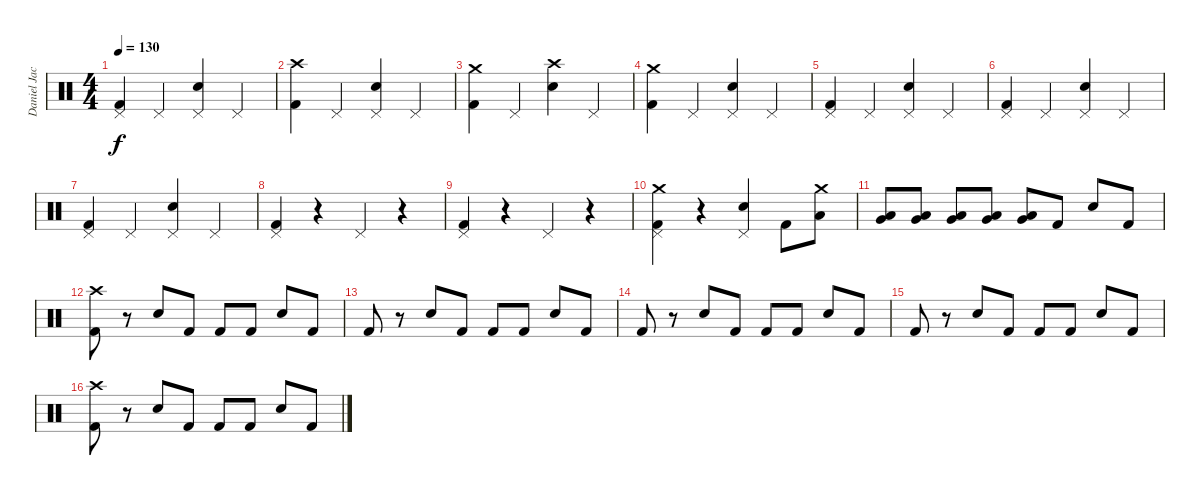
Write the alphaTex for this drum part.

\track ("Daniel Jacques Louis " "Daniel Jac") {instrument percussion}
\staff {score}
\articulation defaults
\ts (4 4)
\tempo 130
\clef neutral
\ks c
("Pedal Hi-Hat (hit)" "Kick (hit) 2").4{dy f} "Pedal Hi-Hat (hit)".4 ("Pedal Hi-Hat (hit)" "Electric Snare (hit)").4 "Pedal Hi-Hat (hit)".4 |
("Crash high (hit)" "Kick (hit) 2").4 "Pedal Hi-Hat (hit)".4 ("Pedal Hi-Hat (hit)" "Electric Snare (hit)").4 "Pedal Hi-Hat (hit)".4 |
("Crash medium (hit)" "Kick (hit) 2").4 "Pedal Hi-Hat (hit)".4 ("Crash high (hit)" "Electric Snare (hit)").4 "Pedal Hi-Hat (hit)".4 |
("Crash medium (hit)" "Kick (hit) 2").4 "Pedal Hi-Hat (hit)".4 ("Pedal Hi-Hat (hit)" "Electric Snare (hit)").4 "Pedal Hi-Hat (hit)".4 |
("Pedal Hi-Hat (hit)" "Kick (hit) 2").4 "Pedal Hi-Hat (hit)".4 ("Pedal Hi-Hat (hit)" "Electric Snare (hit)").4 "Pedal Hi-Hat (hit)".4 |
("Pedal Hi-Hat (hit)" "Kick (hit) 2").4 "Pedal Hi-Hat (hit)".4 ("Pedal Hi-Hat (hit)" "Electric Snare (hit)").4 "Pedal Hi-Hat (hit)".4 |
("Pedal Hi-Hat (hit)" "Kick (hit) 2").4 "Pedal Hi-Hat (hit)".4 ("Pedal Hi-Hat (hit)" "Electric Snare (hit)").4 "Pedal Hi-Hat (hit)".4 |
("Pedal Hi-Hat (hit)" "Kick (hit) 2").4 r.4 "Pedal Hi-Hat (hit)".4 r.4 |
("Pedal Hi-Hat (hit)" "Kick (hit) 2").4 r.4 "Pedal Hi-Hat (hit)".4 r.4 |
("Pedal Hi-Hat (hit)" "Kick (hit) 2" "Crash medium (hit)").4 r.4 ("Pedal Hi-Hat (hit)" "Electric Snare (hit)").4 "Kick (hit) 2".8 ("Low Floor Tom (hit)" "Crash medium (hit)").8 |
("Low Floor Tom (hit)" "Very Low Tom (hit)").8 ("Low Floor Tom (hit)" "Very Low Tom (hit)").8 ("Low Floor Tom (hit)" "Very Low Tom (hit)").8 ("Low Floor Tom (hit)" "Very Low Tom (hit)").8 ("Low Floor Tom (hit)" "Very Low Tom (hit)").8 "Kick (hit) 2".8 "Electric Snare (hit)".8 "Kick (hit) 2".8 |
("Crash high (hit)" "Kick (hit) 2").8 r.8 "Electric Snare (hit)".8 "Kick (hit) 2".8 "Kick (hit) 2".8 "Kick (hit) 2".8 "Electric Snare (hit)".8 "Kick (hit) 2".8 |
"Kick (hit) 2".8 r.8 "Electric Snare (hit)".8 "Kick (hit) 2".8 "Kick (hit) 2".8 "Kick (hit) 2".8 "Electric Snare (hit)".8 "Kick (hit) 2".8 |
"Kick (hit) 2".8 r.8 "Electric Snare (hit)".8 "Kick (hit) 2".8 "Kick (hit) 2".8 "Kick (hit) 2".8 "Electric Snare (hit)".8 "Kick (hit) 2".8 |
"Kick (hit) 2".8 r.8 "Electric Snare (hit)".8 "Kick (hit) 2".8 "Kick (hit) 2".8 "Kick (hit) 2".8 "Electric Snare (hit)".8 "Kick (hit) 2".8 |
("Crash high (hit)" "Kick (hit) 2").8 r.8 "Electric Snare (hit)".8 "Kick (hit) 2".8 "Kick (hit) 2".8 "Kick (hit) 2".8 "Electric Snare (hit)".8 "Kick (hit) 2".8
